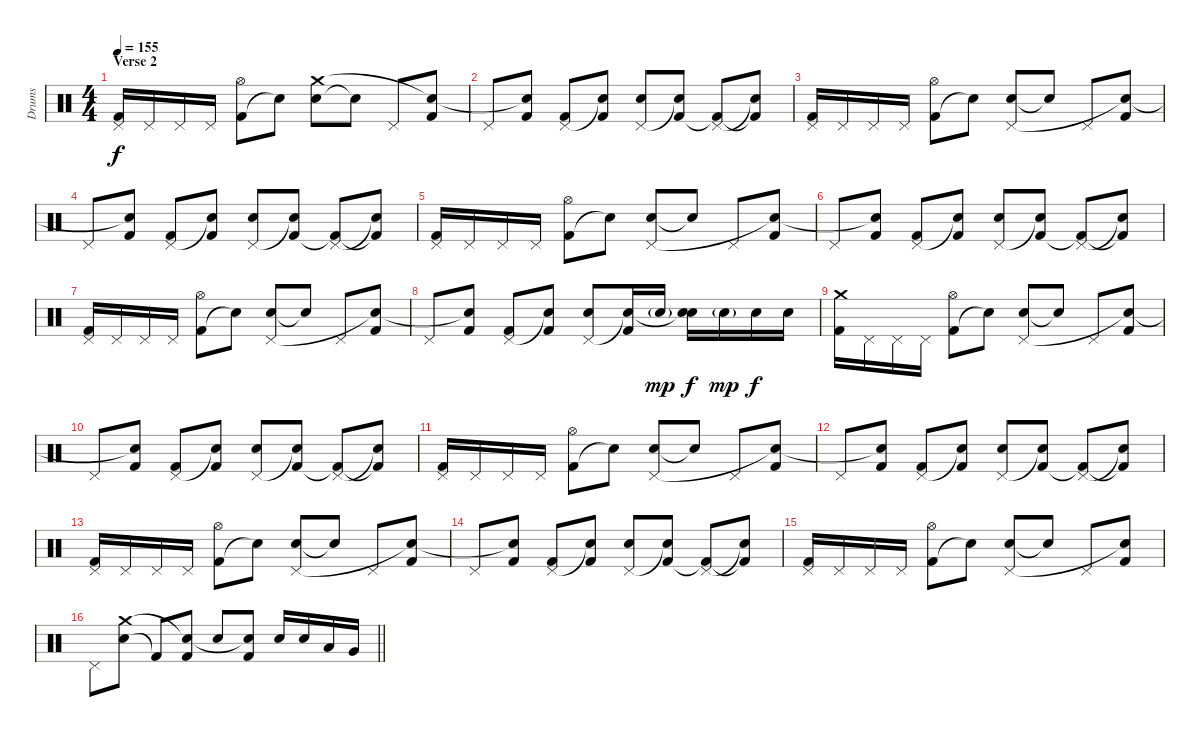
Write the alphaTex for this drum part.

\track ("Drums" "Drums") {instrument percussion}
\staff {score}
\articulation defaults
\ts (4 4)
\section ("" "Verse 2")
\tempo 155
\clef neutral
\ks c
("Kick (hit) 2" "Pedal Hi-Hat (hit)").16{dy f} "Pedal Hi-Hat (hit)".16 "Pedal Hi-Hat (hit)".16 "Pedal Hi-Hat (hit)".16 ("Kick (hit) 2" "Hi-Hat (open)").8 "Snare (hit)"{t}.8 ("Electric Snare (hit)" "Crash medium (hit)").8 "Snare (hit)"{t}.8 "Pedal Hi-Hat (hit)".8 ("Kick (hit) 2" "Snare (hit)"{t}).8 |
"Pedal Hi-Hat (hit)".8 ("Kick (hit) 2" "Snare (hit)"{t}).8 ("Kick (hit) 2" "Pedal Hi-Hat (hit)").8 ("Kick (hit) 2" "Snare (hit)"{t}).8 ("Electric Snare (hit)" "Pedal Hi-Hat (hit)").8 ("Kick (hit) 2" "Snare (hit)"{t}).8 ("Kick (hit) 2"{t} "Pedal Hi-Hat (hit)").8 ("Kick (hit) 2"{t} "Snare (hit)"{t}).8 |
("Kick (hit) 2" "Pedal Hi-Hat (hit)").16 "Pedal Hi-Hat (hit)".16 "Pedal Hi-Hat (hit)".16 "Pedal Hi-Hat (hit)".16 ("Kick (hit) 2" "Hi-Hat (open)").8 "Snare (hit)"{t}.8 ("Electric Snare (hit)" "Pedal Hi-Hat (hit)").8 "Snare (hit)"{t}.8 "Pedal Hi-Hat (hit)".8 ("Kick (hit) 2" "Snare (hit)"{t}).8 |
"Pedal Hi-Hat (hit)".8 ("Kick (hit) 2" "Snare (hit)"{t}).8 ("Kick (hit) 2" "Pedal Hi-Hat (hit)").8 ("Kick (hit) 2" "Snare (hit)"{t}).8 ("Electric Snare (hit)" "Pedal Hi-Hat (hit)").8 ("Kick (hit) 2" "Snare (hit)"{t}).8 ("Kick (hit) 2"{t} "Pedal Hi-Hat (hit)").8 ("Kick (hit) 2"{t} "Snare (hit)"{t}).8 |
("Kick (hit) 2" "Pedal Hi-Hat (hit)").16 "Pedal Hi-Hat (hit)".16 "Pedal Hi-Hat (hit)".16 "Pedal Hi-Hat (hit)".16 ("Kick (hit) 2" "Hi-Hat (open)").8 "Snare (hit)"{t}.8 ("Electric Snare (hit)" "Pedal Hi-Hat (hit)").8 "Snare (hit)"{t}.8 "Pedal Hi-Hat (hit)".8 ("Kick (hit) 2" "Snare (hit)"{t}).8 |
"Pedal Hi-Hat (hit)".8 ("Kick (hit) 2" "Snare (hit)"{t}).8 ("Kick (hit) 2" "Pedal Hi-Hat (hit)").8 ("Kick (hit) 2" "Snare (hit)"{t}).8 ("Electric Snare (hit)" "Pedal Hi-Hat (hit)").8 ("Kick (hit) 2" "Snare (hit)"{t}).8 ("Kick (hit) 2"{t} "Pedal Hi-Hat (hit)").8 ("Kick (hit) 2"{t} "Snare (hit)"{t}).8 |
("Kick (hit) 2" "Pedal Hi-Hat (hit)").16 "Pedal Hi-Hat (hit)".16 "Pedal Hi-Hat (hit)".16 "Pedal Hi-Hat (hit)".16 ("Kick (hit) 2" "Hi-Hat (open)").8 "Snare (hit)"{t}.8 ("Electric Snare (hit)" "Pedal Hi-Hat (hit)").8 "Snare (hit)"{t}.8 "Pedal Hi-Hat (hit)".8 ("Kick (hit) 2" "Snare (hit)"{t}).8 |
"Pedal Hi-Hat (hit)".8 ("Kick (hit) 2" "Snare (hit)"{t}).8 ("Kick (hit) 2" "Pedal Hi-Hat (hit)").8 ("Kick (hit) 2" "Snare (hit)"{t}).8 ("Electric Snare (hit)" "Pedal Hi-Hat (hit)").8 ("Kick (hit) 2" "Snare (hit)"{t}).16 "Electric Snare (hit)"{g}.16{dy mp} ("Electric Snare (hit)" "Snare (hit)"{t}).16{dy f} "Electric Snare (hit)"{g}.16{dy mp} "Electric Snare (hit)".16{dy f} "Electric Snare (hit)".16 |
("Kick (hit) 2" "Crash medium (hit)").16 "Pedal Hi-Hat (hit)".16 "Pedal Hi-Hat (hit)".16 "Pedal Hi-Hat (hit)".16 ("Kick (hit) 2" "Hi-Hat (open)").8 "Snare (hit)"{t}.8 ("Electric Snare (hit)" "Pedal Hi-Hat (hit)").8 "Snare (hit)"{t}.8 "Pedal Hi-Hat (hit)".8 ("Kick (hit) 2" "Snare (hit)"{t}).8 |
"Pedal Hi-Hat (hit)".8 ("Kick (hit) 2" "Snare (hit)"{t}).8 ("Kick (hit) 2" "Pedal Hi-Hat (hit)").8 ("Kick (hit) 2" "Snare (hit)"{t}).8 ("Electric Snare (hit)" "Pedal Hi-Hat (hit)").8 ("Kick (hit) 2" "Snare (hit)"{t}).8 ("Kick (hit) 2"{t} "Pedal Hi-Hat (hit)").8 ("Kick (hit) 2"{t} "Snare (hit)"{t}).8 |
("Kick (hit) 2" "Pedal Hi-Hat (hit)").16 "Pedal Hi-Hat (hit)".16 "Pedal Hi-Hat (hit)".16 "Pedal Hi-Hat (hit)".16 ("Kick (hit) 2" "Hi-Hat (open)").8 "Snare (hit)"{t}.8 ("Electric Snare (hit)" "Pedal Hi-Hat (hit)").8 "Snare (hit)"{t}.8 "Pedal Hi-Hat (hit)".8 ("Kick (hit) 2" "Snare (hit)"{t}).8 |
"Pedal Hi-Hat (hit)".8 ("Kick (hit) 2" "Snare (hit)"{t}).8 ("Kick (hit) 2" "Pedal Hi-Hat (hit)").8 ("Kick (hit) 2" "Snare (hit)"{t}).8 ("Electric Snare (hit)" "Pedal Hi-Hat (hit)").8 ("Kick (hit) 2" "Snare (hit)"{t}).8 ("Kick (hit) 2"{t} "Pedal Hi-Hat (hit)").8 ("Kick (hit) 2"{t} "Snare (hit)"{t}).8 |
("Kick (hit) 2" "Pedal Hi-Hat (hit)").16 "Pedal Hi-Hat (hit)".16 "Pedal Hi-Hat (hit)".16 "Pedal Hi-Hat (hit)".16 ("Kick (hit) 2" "Hi-Hat (open)").8 "Snare (hit)"{t}.8 ("Electric Snare (hit)" "Pedal Hi-Hat (hit)").8 "Snare (hit)"{t}.8 "Pedal Hi-Hat (hit)".8 ("Kick (hit) 2" "Snare (hit)"{t}).8 |
"Pedal Hi-Hat (hit)".8 ("Kick (hit) 2" "Snare (hit)"{t}).8 ("Kick (hit) 2" "Pedal Hi-Hat (hit)").8 ("Kick (hit) 2" "Snare (hit)"{t}).8 ("Electric Snare (hit)" "Pedal Hi-Hat (hit)").8 ("Kick (hit) 2" "Snare (hit)"{t}).8 ("Kick (hit) 2"{t} "Pedal Hi-Hat (hit)").8 ("Kick (hit) 2"{t} "Snare (hit)"{t}).8 |
("Kick (hit) 2" "Pedal Hi-Hat (hit)").16 "Pedal Hi-Hat (hit)".16 "Pedal Hi-Hat (hit)".16 "Pedal Hi-Hat (hit)".16 ("Kick (hit) 2" "Hi-Hat (open)").8 "Snare (hit)"{t}.8 ("Electric Snare (hit)" "Pedal Hi-Hat (hit)").8 "Snare (hit)"{t}.8 "Pedal Hi-Hat (hit)".8 ("Kick (hit) 2" "Snare (hit)"{t}).8 |
\barLineRight lightlight "Pedal Hi-Hat (hit)".8
("Electric Snare (hit)" "Crash medium (hit)").8 "Kick (hit) 2"{t}.8 ("Kick (hit) 2" "Snare (hit)"{t}).8 "Electric Snare (hit)".8 ("Kick (hit) 2" "Snare (hit)"{t}).8 "Electric Snare (hit)".16 "Electric Snare (hit)".16 "Low Tom (hit)".16 "Very Low Tom (hit)".16
